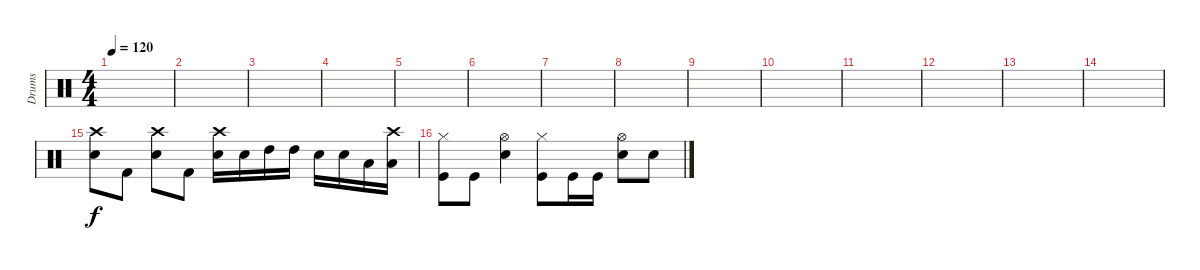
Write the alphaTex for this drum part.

\track ("Drums" "Drums") {instrument percussion}
\staff {score}
\articulation defaults
\ts (4 4)
\tempo 120
\clef neutral
\ks c
|
|
|
|
|
|
|
|
|
|
|
|
|
|
("Crash high (hit)" "Snare (hit) 2").8{dy f} "Kick (hit) 2".8 ("Crash high (hit)" "Snare (hit) 2").8 "Kick (hit) 2".8 ("Crash high (hit)" "Snare (hit) 2").16 "Snare (hit) 2".16 "High Tom (hit)".16 "High Tom (hit)".16 "Snare (hit) 2".16 "Snare (hit) 2".16 "Low Tom (hit)".16 ("Crash high (hit)" "Low Tom (hit)").16 |
("Hi-Hat (closed)" "Kick (hit)").8 "Kick (hit)".8 ("Hi-Hat (open)" "Snare (hit) 2").4 ("Hi-Hat (closed)" "Kick (hit)").8 "Kick (hit)".16 "Kick (hit)".16 ("Hi-Hat (open)" "Snare (hit) 2").8 "Snare (hit) 2".8
